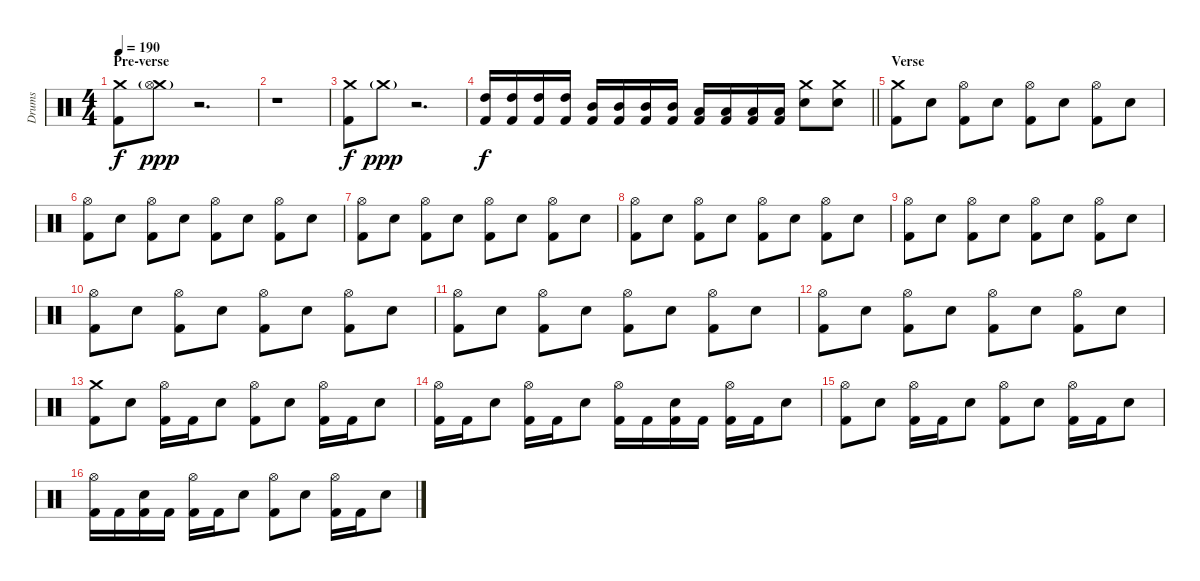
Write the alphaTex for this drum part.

\track ("Drums" "Drums") {instrument percussion}
\staff {score}
\articulation defaults
\ts (4 4)
\section ("" "Pre-verse")
\tempo 190
\clef neutral
\ks c
("Crash medium (hit)" "Kick (hit) 2").8{dy f} ("Crash medium (hit)"{g} "Hi-Hat (open)"{g}).8{dy ppp} r.2{d} |
r.1 |
("Crash medium (hit)" "Kick (hit) 2").8{dy f} "Crash medium (hit)"{g}.8{dy ppp} r.2{d balance 16} |
\barLineRight lightlight
("High Tom (hit)" "Kick (hit) 2").16{dy f balance 0} ("High Tom (hit)" "Kick (hit) 2").16 ("High Tom (hit)" "Kick (hit) 2").16 ("High Tom (hit)" "Kick (hit) 2").16 ("Mid Tom (hit)" "Kick (hit) 2").16 ("Mid Tom (hit)" "Kick (hit) 2").16 ("Mid Tom (hit)" "Kick (hit) 2").16 ("Mid Tom (hit)" "Kick (hit) 2").16 ("Low Tom (hit)" "Kick (hit) 2").16 ("Low Tom (hit)" "Kick (hit) 2").16 ("Low Tom (hit)" "Kick (hit) 2").16 ("Low Tom (hit)" "Kick (hit) 2").16 ("Crash medium (hit)" "Electric Snare (hit)").8 ("Crash medium (hit)" "Electric Snare (hit)").8 |
\section ("" "Verse")
("Crash medium (hit)" "Kick (hit) 2").8{balance 8} "Electric Snare (hit)".8 ("Hi-Hat (open)" "Kick (hit) 2").8 "Electric Snare (hit)".8 ("Hi-Hat (open)" "Kick (hit) 2").8 "Electric Snare (hit)".8 ("Hi-Hat (open)" "Kick (hit) 2").8 "Electric Snare (hit)".8 |
("Hi-Hat (open)" "Kick (hit) 2").8 "Electric Snare (hit)".8 ("Hi-Hat (open)" "Kick (hit) 2").8 "Electric Snare (hit)".8 ("Hi-Hat (open)" "Kick (hit) 2").8 "Electric Snare (hit)".8 ("Hi-Hat (open)" "Kick (hit) 2").8 "Electric Snare (hit)".8 |
("Hi-Hat (open)" "Kick (hit) 2").8 "Electric Snare (hit)".8 ("Hi-Hat (open)" "Kick (hit) 2").8 "Electric Snare (hit)".8 ("Hi-Hat (open)" "Kick (hit) 2").8 "Electric Snare (hit)".8 ("Hi-Hat (open)" "Kick (hit) 2").8 "Electric Snare (hit)".8 |
("Hi-Hat (open)" "Kick (hit) 2").8 "Electric Snare (hit)".8 ("Hi-Hat (open)" "Kick (hit) 2").8 "Electric Snare (hit)".8 ("Hi-Hat (open)" "Kick (hit) 2").8 "Electric Snare (hit)".8 ("Hi-Hat (open)" "Kick (hit) 2").8 "Electric Snare (hit)".8 |
("Hi-Hat (open)" "Kick (hit) 2").8 "Electric Snare (hit)".8 ("Hi-Hat (open)" "Kick (hit) 2").8 "Electric Snare (hit)".8 ("Hi-Hat (open)" "Kick (hit) 2").8 "Electric Snare (hit)".8 ("Hi-Hat (open)" "Kick (hit) 2").8 "Electric Snare (hit)".8 |
("Hi-Hat (open)" "Kick (hit) 2").8 "Electric Snare (hit)".8 ("Hi-Hat (open)" "Kick (hit) 2").8 "Electric Snare (hit)".8 ("Hi-Hat (open)" "Kick (hit) 2").8 "Electric Snare (hit)".8 ("Hi-Hat (open)" "Kick (hit) 2").8 "Electric Snare (hit)".8 |
("Hi-Hat (open)" "Kick (hit) 2").8 "Electric Snare (hit)".8 ("Hi-Hat (open)" "Kick (hit) 2").8 "Electric Snare (hit)".8 ("Hi-Hat (open)" "Kick (hit) 2").8 "Electric Snare (hit)".8 ("Hi-Hat (open)" "Kick (hit) 2").8 "Electric Snare (hit)".8 |
("Hi-Hat (open)" "Kick (hit) 2").8 "Electric Snare (hit)".8 ("Hi-Hat (open)" "Kick (hit) 2").8 "Electric Snare (hit)".8 ("Hi-Hat (open)" "Kick (hit) 2").8 "Electric Snare (hit)".8 ("Hi-Hat (open)" "Kick (hit) 2").8 "Electric Snare (hit)".8 |
("Crash medium (hit)" "Kick (hit) 2").8 "Electric Snare (hit)".8 ("Hi-Hat (open)" "Kick (hit) 2").16 "Kick (hit) 2".16 "Electric Snare (hit)".8 ("Hi-Hat (open)" "Kick (hit) 2").8 "Electric Snare (hit)".8 ("Hi-Hat (open)" "Kick (hit) 2").16 "Kick (hit) 2".16 "Electric Snare (hit)".8 |
("Hi-Hat (open)" "Kick (hit) 2").16 "Kick (hit) 2".16 "Electric Snare (hit)".8 ("Hi-Hat (open)" "Kick (hit) 2").16 "Kick (hit) 2".16 "Electric Snare (hit)".8 ("Hi-Hat (open)" "Kick (hit) 2").16 "Kick (hit) 2".16 ("Electric Snare (hit)" "Kick (hit) 2").16 "Kick (hit) 2".16 ("Hi-Hat (open)" "Kick (hit) 2").16 "Kick (hit) 2".16 "Electric Snare (hit)".8 |
("Hi-Hat (open)" "Kick (hit) 2").8 "Electric Snare (hit)".8 ("Hi-Hat (open)" "Kick (hit) 2").16 "Kick (hit) 2".16 "Electric Snare (hit)".8 ("Hi-Hat (open)" "Kick (hit) 2").8 "Electric Snare (hit)".8 ("Hi-Hat (open)" "Kick (hit) 2").16 "Kick (hit) 2".16 "Electric Snare (hit)".8 |
("Hi-Hat (open)" "Kick (hit) 2").16 "Kick (hit) 2".16 ("Electric Snare (hit)" "Kick (hit) 2").16 "Kick (hit) 2".16 ("Hi-Hat (open)" "Kick (hit) 2").16 "Kick (hit) 2".16 "Electric Snare (hit)".8 ("Hi-Hat (open)" "Kick (hit) 2").8 "Electric Snare (hit)".8 ("Hi-Hat (open)" "Kick (hit) 2").16 "Kick (hit) 2".16 "Electric Snare (hit)".8
